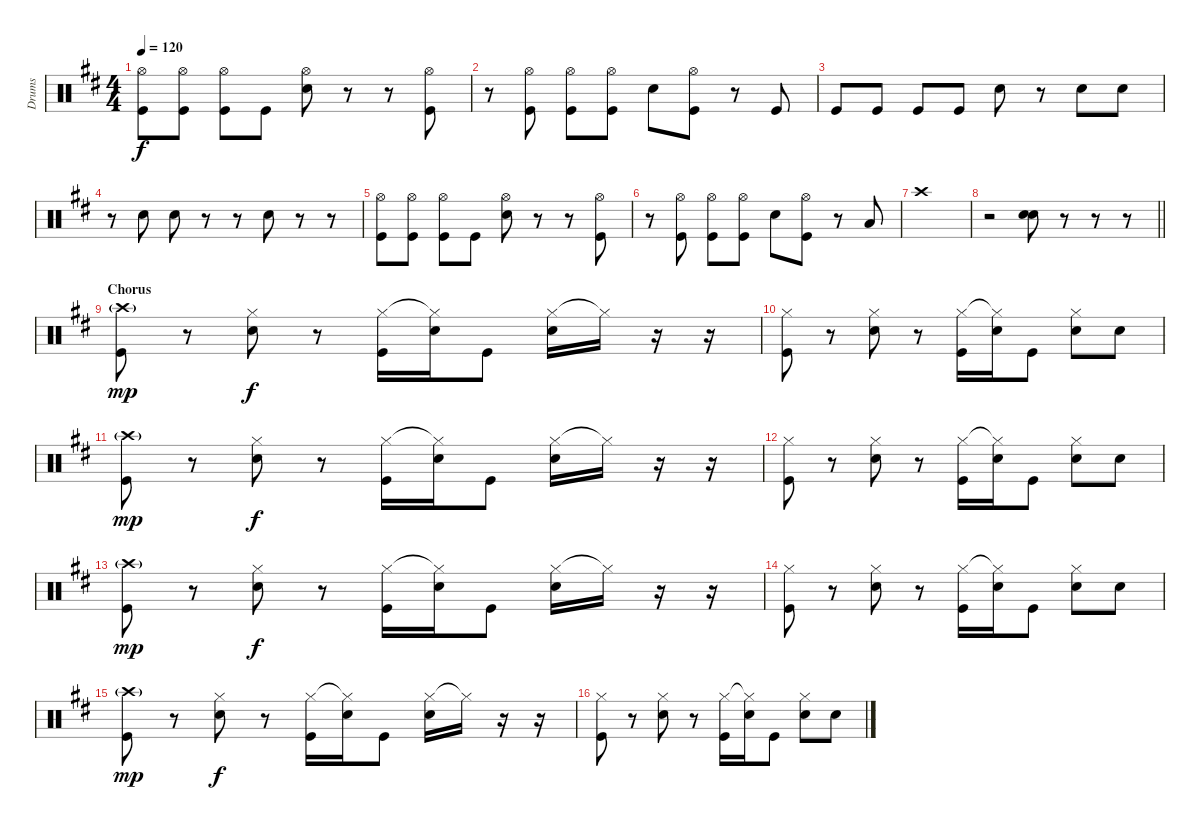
\track ("Drums" "Drums") {instrument percussion}
\staff {score}
\articulation defaults
\ts (4 4)
\tempo 120
\clef neutral
\ks d
("Hi-Hat (open)" "Kick (hit)").8{dy f} ("Hi-Hat (open)" "Kick (hit)").8 ("Hi-Hat (open)" "Kick (hit)").8 "Kick (hit)".8 ("Hi-Hat (open)" "Electric Snare (hit)").8 r.8 r.8 ("Hi-Hat (open)" "Kick (hit)").8 |
r.8 ("Hi-Hat (open)" "Kick (hit)").8 ("Hi-Hat (open)" "Kick (hit)").8 ("Hi-Hat (open)" "Kick (hit)").8 "Electric Snare (hit)".8 ("Hi-Hat (open)" "Kick (hit)").8 r.8 "Kick (hit)".8 |
"Kick (hit)".8 "Kick (hit)".8 "Kick (hit)".8 "Kick (hit)".8 "Electric Snare (hit)".8 r.8 "Electric Snare (hit)".8 "Electric Snare (hit)".8 |
r.8 "Snare (hit) 2".8 "Snare (hit) 2".8 r.8 r.8 "Electric Snare (hit)".8 r.8 r.8 |
("Hi-Hat (open)" "Kick (hit)").8 ("Hi-Hat (open)" "Kick (hit)").8 ("Hi-Hat (open)" "Kick (hit)").8 "Kick (hit)".8 ("Hi-Hat (open)" "Electric Snare (hit)").8 r.8 r.8 ("Hi-Hat (open)" "Kick (hit)").8 |
r.8 ("Hi-Hat (open)" "Kick (hit)").8 ("Hi-Hat (open)" "Kick (hit)").8 ("Hi-Hat (open)" "Kick (hit)").8 "Electric Snare (hit)".8 ("Hi-Hat (open)" "Kick (hit)").8 r.8 "Low Floor Tom (hit)".8 |
"Crash high (hit)".1 |
\barLineRight lightlight
r.2 ("Electric Snare (hit)" "Snare (hit) 2").8 r.8 r.8 r.8 |
\section ("" "Chorus")
("Crash high (hit)"{g} "Kick (hit)").8{dy mp} r.8 ("Hi-Hat (closed)" "Snare (hit) 2").8{dy f} r.8 ("Hi-Hat (closed)" "Kick (hit)").16 ("Hi-Hat (closed)"{t} "Snare (hit) 2").16 "Kick (hit)".8 ("Hi-Hat (closed)" "Snare (hit) 2").16 "Hi-Hat (closed)"{t}.16 r.16 r.16 |
("Hi-Hat (closed)" "Kick (hit)").8 r.8 ("Hi-Hat (closed)" "Snare (hit) 2").8 r.8 ("Hi-Hat (closed)" "Kick (hit)").16 ("Hi-Hat (closed)"{t} "Snare (hit) 2").16 "Kick (hit)".8 ("Hi-Hat (closed)" "Snare (hit) 2").8 "Snare (hit) 2".8 |
("Crash high (hit)"{g} "Kick (hit)").8{dy mp} r.8 ("Hi-Hat (closed)" "Snare (hit) 2").8{dy f} r.8 ("Hi-Hat (closed)" "Kick (hit)").16 ("Hi-Hat (closed)"{t} "Snare (hit) 2").16 "Kick (hit)".8 ("Hi-Hat (closed)" "Snare (hit) 2").16 "Hi-Hat (closed)"{t}.16 r.16 r.16 |
("Hi-Hat (closed)" "Kick (hit)").8 r.8 ("Hi-Hat (closed)" "Snare (hit) 2").8 r.8 ("Hi-Hat (closed)" "Kick (hit)").16 ("Hi-Hat (closed)"{t} "Snare (hit) 2").16 "Kick (hit)".8 ("Hi-Hat (closed)" "Snare (hit) 2").8 "Snare (hit) 2".8 |
("Crash high (hit)"{g} "Kick (hit)").8{dy mp} r.8 ("Hi-Hat (closed)" "Snare (hit) 2").8{dy f} r.8 ("Hi-Hat (closed)" "Kick (hit)").16 ("Hi-Hat (closed)"{t} "Snare (hit) 2").16 "Kick (hit)".8 ("Hi-Hat (closed)" "Snare (hit) 2").16 "Hi-Hat (closed)"{t}.16 r.16 r.16 |
("Hi-Hat (closed)" "Kick (hit)").8 r.8 ("Hi-Hat (closed)" "Snare (hit) 2").8 r.8 ("Hi-Hat (closed)" "Kick (hit)").16 ("Hi-Hat (closed)"{t} "Snare (hit) 2").16 "Kick (hit)".8 ("Hi-Hat (closed)" "Snare (hit) 2").8 "Snare (hit) 2".8 |
("Crash high (hit)"{g} "Kick (hit)").8{dy mp} r.8 ("Hi-Hat (closed)" "Snare (hit) 2").8{dy f} r.8 ("Hi-Hat (closed)" "Kick (hit)").16 ("Hi-Hat (closed)"{t} "Snare (hit) 2").16 "Kick (hit)".8 ("Hi-Hat (closed)" "Snare (hit) 2").16 "Hi-Hat (closed)"{t}.16 r.16 r.16 |
("Hi-Hat (closed)" "Kick (hit)").8 r.8 ("Hi-Hat (closed)" "Snare (hit) 2").8 r.8 ("Hi-Hat (closed)" "Kick (hit)").16 ("Hi-Hat (closed)"{t} "Snare (hit) 2").16 "Kick (hit)".8 ("Hi-Hat (closed)" "Snare (hit) 2").8 "Snare (hit) 2".8
